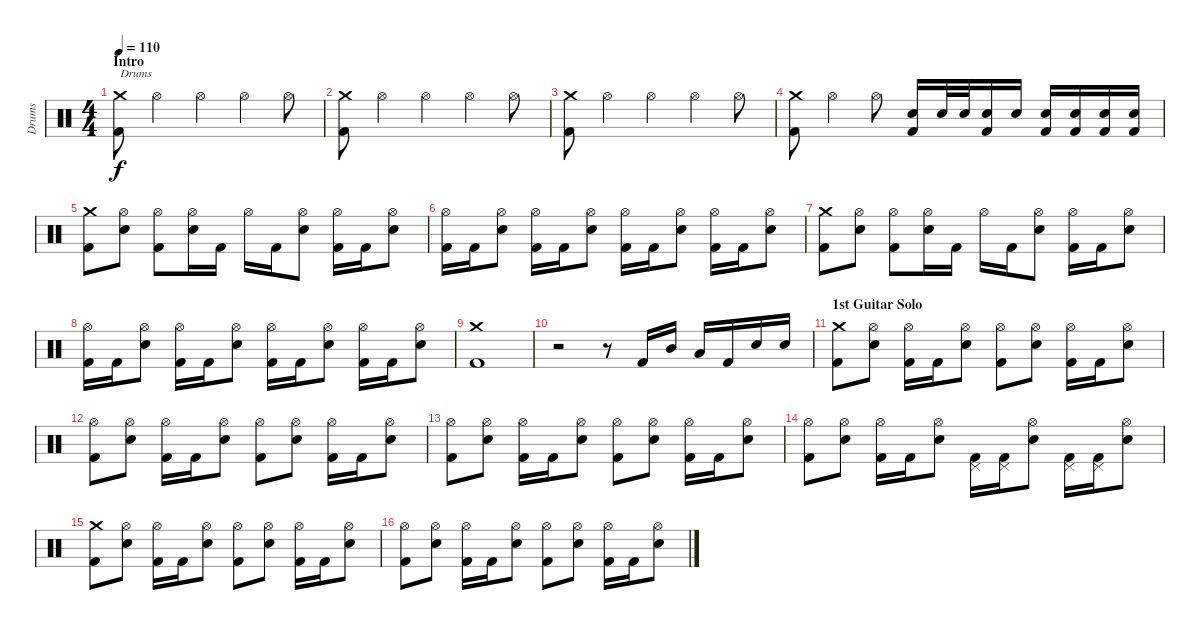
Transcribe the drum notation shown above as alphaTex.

\track ("Drums" "Drums") {instrument percussion}
\staff {score}
\articulation defaults
\ts (4 4)
\section ("" "Intro")
\tempo 110
\clef neutral
\ks c
("Crash medium (hit)" "Kick (hit) 2").8{txt "Drums" dy f} "Hi-Hat (open)".4 "Hi-Hat (open)".4 "Hi-Hat (open)".4 "Hi-Hat (open)".8 |
("Crash medium (hit)" "Kick (hit) 2").8 "Hi-Hat (open)".4 "Hi-Hat (open)".4 "Hi-Hat (open)".4 "Hi-Hat (open)".8 |
("Crash medium (hit)" "Kick (hit) 2").8 "Hi-Hat (open)".4 "Hi-Hat (open)".4 "Hi-Hat (open)".4 "Hi-Hat (open)".8 |
("Crash medium (hit)" "Kick (hit) 2").8 "Hi-Hat (open)".4 "Hi-Hat (open)".8 ("Electric Snare (hit)" "Kick (hit) 2").16 "Electric Snare (hit)".32 "Electric Snare (hit)".32 ("Electric Snare (hit)" "Kick (hit) 2").16 "Electric Snare (hit)".16 ("Electric Snare (hit)" "Kick (hit) 2").16 ("Electric Snare (hit)" "Kick (hit) 2").16 ("Electric Snare (hit)" "Kick (hit) 2").16 ("Electric Snare (hit)" "Kick (hit) 2").16 |
("Crash medium (hit)" "Kick (hit) 2").8 ("Hi-Hat (open)" "Electric Snare (hit)").8 ("Hi-Hat (open)" "Kick (hit) 2").8 ("Hi-Hat (open)" "Electric Snare (hit)").16 "Kick (hit) 2".16 "Hi-Hat (open)".16 "Kick (hit) 2".16 ("Hi-Hat (open)" "Electric Snare (hit)").8 ("Hi-Hat (open)" "Kick (hit) 2").16 "Kick (hit) 2".16 ("Hi-Hat (open)" "Electric Snare (hit)").8 |
("Hi-Hat (open)" "Kick (hit) 2").16 "Kick (hit) 2".16 ("Hi-Hat (open)" "Electric Snare (hit)").8 ("Hi-Hat (open)" "Kick (hit) 2").16 "Kick (hit) 2".16 ("Hi-Hat (open)" "Electric Snare (hit)").8 ("Hi-Hat (open)" "Kick (hit) 2").16 "Kick (hit) 2".16 ("Hi-Hat (open)" "Electric Snare (hit)").8 ("Hi-Hat (open)" "Kick (hit) 2").16 "Kick (hit) 2".16 ("Hi-Hat (open)" "Electric Snare (hit)").8 |
("Crash medium (hit)" "Kick (hit) 2").8 ("Hi-Hat (open)" "Electric Snare (hit)").8 ("Hi-Hat (open)" "Kick (hit) 2").8 ("Hi-Hat (open)" "Electric Snare (hit)").16 "Kick (hit) 2".16 "Hi-Hat (open)".16 "Kick (hit) 2".16 ("Hi-Hat (open)" "Electric Snare (hit)").8 ("Hi-Hat (open)" "Kick (hit) 2").16 "Kick (hit) 2".16 ("Hi-Hat (open)" "Electric Snare (hit)").8 |
("Hi-Hat (open)" "Kick (hit) 2").16 "Kick (hit) 2".16 ("Hi-Hat (open)" "Electric Snare (hit)").8 ("Hi-Hat (open)" "Kick (hit) 2").16 "Kick (hit) 2".16 ("Hi-Hat (open)" "Electric Snare (hit)").8 ("Hi-Hat (open)" "Kick (hit) 2").16 "Kick (hit) 2".16 ("Hi-Hat (open)" "Electric Snare (hit)").8 ("Hi-Hat (open)" "Kick (hit) 2").16 "Kick (hit) 2".16 ("Hi-Hat (open)" "Electric Snare (hit)").8 |
("Crash medium (hit)" "Kick (hit) 2").1 |
r.2 r.8 "Kick (hit) 2".16 "Mid Tom (hit)".16 "Low Tom (hit)".16 "Kick (hit) 2".16 "Electric Snare (hit)".16 "Electric Snare (hit)".16 |
\section ("" "1st Guitar Solo")
("Crash medium (hit)" "Kick (hit) 2").8 ("Hi-Hat (open)" "Electric Snare (hit)").8 ("Hi-Hat (open)" "Kick (hit) 2").16 "Kick (hit) 2".16 ("Hi-Hat (open)" "Electric Snare (hit)").8 ("Hi-Hat (open)" "Kick (hit) 2").8 ("Hi-Hat (open)" "Electric Snare (hit)").8 ("Hi-Hat (open)" "Kick (hit) 2").16 "Kick (hit) 2".16 ("Hi-Hat (open)" "Electric Snare (hit)").8 |
("Hi-Hat (open)" "Kick (hit) 2").8 ("Hi-Hat (open)" "Electric Snare (hit)").8 ("Hi-Hat (open)" "Kick (hit) 2").16 "Kick (hit) 2".16 ("Hi-Hat (open)" "Electric Snare (hit)").8 ("Hi-Hat (open)" "Kick (hit) 2").8 ("Hi-Hat (open)" "Electric Snare (hit)").8 ("Hi-Hat (open)" "Kick (hit) 2").16 "Kick (hit) 2".16 ("Hi-Hat (open)" "Electric Snare (hit)").8 |
("Hi-Hat (open)" "Kick (hit) 2").8 ("Hi-Hat (open)" "Electric Snare (hit)").8 ("Hi-Hat (open)" "Kick (hit) 2").16 "Kick (hit) 2".16 ("Hi-Hat (open)" "Electric Snare (hit)").8 ("Hi-Hat (open)" "Kick (hit) 2").8 ("Hi-Hat (open)" "Electric Snare (hit)").8 ("Hi-Hat (open)" "Kick (hit) 2").16 "Kick (hit) 2".16 ("Hi-Hat (open)" "Electric Snare (hit)").8 |
("Hi-Hat (open)" "Kick (hit) 2").8 ("Hi-Hat (open)" "Electric Snare (hit)").8 ("Hi-Hat (open)" "Kick (hit) 2").16 "Kick (hit) 2".16 ("Hi-Hat (open)" "Electric Snare (hit)").8 ("Pedal Hi-Hat (hit)" "Kick (hit) 2").16 ("Pedal Hi-Hat (hit)" "Kick (hit) 2").16 ("Hi-Hat (open)" "Electric Snare (hit)").8 ("Pedal Hi-Hat (hit)" "Kick (hit) 2").16 ("Pedal Hi-Hat (hit)" "Kick (hit) 2").16 ("Hi-Hat (open)" "Electric Snare (hit)").8 |
("Crash medium (hit)" "Kick (hit) 2").8 ("Hi-Hat (open)" "Electric Snare (hit)").8 ("Hi-Hat (open)" "Kick (hit) 2").16 "Kick (hit) 2".16 ("Hi-Hat (open)" "Electric Snare (hit)").8 ("Hi-Hat (open)" "Kick (hit) 2").8 ("Hi-Hat (open)" "Electric Snare (hit)").8 ("Hi-Hat (open)" "Kick (hit) 2").16 "Kick (hit) 2".16 ("Hi-Hat (open)" "Electric Snare (hit)").8 |
("Hi-Hat (open)" "Kick (hit) 2").8 ("Hi-Hat (open)" "Electric Snare (hit)").8 ("Hi-Hat (open)" "Kick (hit) 2").16 "Kick (hit) 2".16 ("Hi-Hat (open)" "Electric Snare (hit)").8 ("Hi-Hat (open)" "Kick (hit) 2").8 ("Hi-Hat (open)" "Electric Snare (hit)").8 ("Hi-Hat (open)" "Kick (hit) 2").16 "Kick (hit) 2".16 ("Hi-Hat (open)" "Electric Snare (hit)").8
